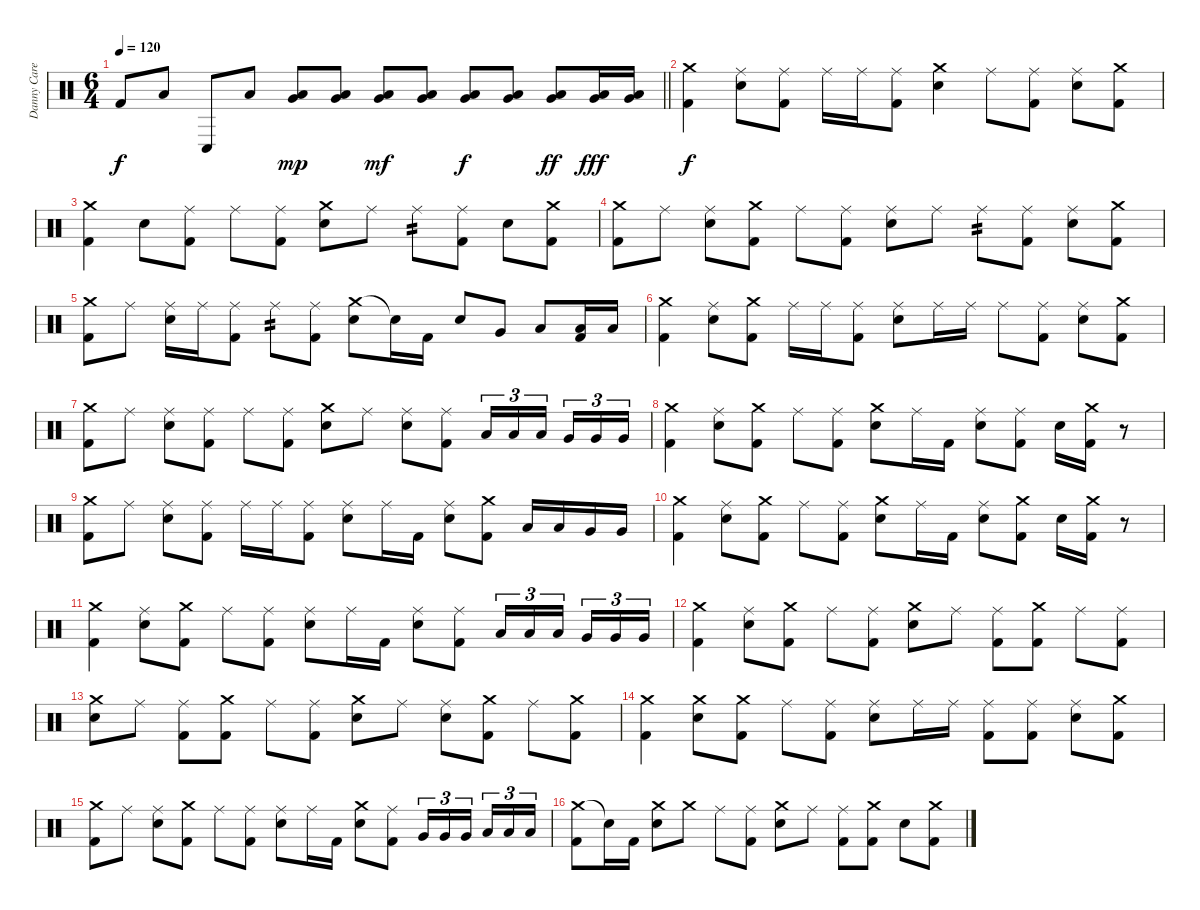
\track ("Danny Carey" "Danny Care") {instrument percussion}
\staff {score}
\articulation defaults
\ts (6 4)
\tempo 120
\clef neutral
\barLineRight lightlight
\ks c "Kick (hit) 2".8{dy f} "Low Tom (hit)".8 "Conga low (hit)".8 "Low Tom (hit)".8
("Very Low Tom (hit)" "Low Floor Tom (hit)").8{dy mp} ("Very Low Tom (hit)" "Low Floor Tom (hit)").8 ("Very Low Tom (hit)" "Low Floor Tom (hit)").8{dy mf} ("Very Low Tom (hit)" "Low Floor Tom (hit)").8 ("Very Low Tom (hit)" "Low Floor Tom (hit)").8{dy f} ("Very Low Tom (hit)" "Low Floor Tom (hit)").8 ("Very Low Tom (hit)" "Low Floor Tom (hit)").8{dy ff} ("Very Low Tom (hit)" "Low Floor Tom (hit)").16{dy fff} ("Very Low Tom (hit)" "Low Floor Tom (hit)").16 |
\section ("" "")
("Crash medium (hit)" "Kick (hit) 2").4{dy f} ("Ride (middle)" "Snare (hit) 2").8 ("Ride (middle)" "Kick (hit) 2").8 "Ride (middle)".16 "Ride (middle)".16 ("Ride (middle)" "Kick (hit) 2").8 ("Crash medium (hit)" "Snare (hit) 2").4 "Ride (middle)".8 ("Ride (middle)" "Kick (hit) 2").8 ("Ride (middle)" "Snare (hit) 2").8 ("Crash medium (hit)" "Kick (hit) 2").8 |
("Crash medium (hit)" "Kick (hit) 2").4 "Snare (hit) 2".8 ("Ride (middle)" "Kick (hit) 2").8 "Ride (middle)".8 ("Ride (middle)" "Kick (hit) 2").8 ("Crash medium (hit)" "Snare (hit) 2").8 "Ride (middle)".8 "Ride (middle)".8{tp 2} ("Ride (middle)" "Kick (hit) 2").8 "Snare (hit) 2".8 ("Crash medium (hit)" "Kick (hit) 2").8 |
("Crash medium (hit)" "Kick (hit) 2").8 "Ride (middle)".8 ("Ride (middle)" "Snare (hit) 2").8 ("Crash medium (hit)" "Kick (hit) 2").8 "Ride (middle)".8 ("Ride (middle)" "Kick (hit) 2").8 ("Ride (middle)" "Snare (hit) 2").8 "Ride (middle)".8 "Ride (middle)".8{tp 2} ("Ride (middle)" "Kick (hit) 2").8 ("Ride (middle)" "Snare (hit) 2").8 ("Crash medium (hit)" "Kick (hit) 2").8 |
("Crash medium (hit)" "Kick (hit) 2").8 "Ride (middle)".8 ("Ride (middle)" "Snare (hit) 2").16 "Ride (middle)".16 ("Ride (middle)" "Kick (hit) 2").8 "Ride (middle)".8{tp 2} ("Ride (middle)" "Kick (hit) 2").8 ("Crash medium (hit)" "Snare (hit) 2").8 "Snare (hit)"{t}.16 "Kick (hit) 2".16 "Snare (hit) 2".8 "Very Low Tom (hit)".8 "Low Floor Tom (hit)".8 ("Low Floor Tom (hit)" "Kick (hit) 2").16 "Low Floor Tom (hit)".16 |
("Crash medium (hit)" "Kick (hit) 2").4 ("Ride (middle)" "Snare (hit) 2").8 ("Crash medium (hit)" "Kick (hit) 2").8 "Ride (middle)".16 "Ride (middle)".16 ("Ride (middle)" "Kick (hit) 2").8 ("Ride (middle)" "Snare (hit) 2").8 "Ride (middle)".16 "Ride (middle)".16 "Ride (middle)".8 ("Ride (middle)" "Kick (hit) 2").8 ("Ride (middle)" "Snare (hit) 2").8 ("Crash medium (hit)" "Kick (hit) 2").8 |
("Crash medium (hit)" "Kick (hit) 2").8 "Ride (middle)".8 ("Ride (middle)" "Snare (hit) 2").8 ("Ride (middle)" "Kick (hit) 2").8 "Ride (middle)".8 ("Ride (middle)" "Kick (hit) 2").8 ("Crash medium (hit)" "Snare (hit) 2").8 "Ride (middle)".8 ("Ride (middle)" "Snare (hit) 2").8 ("Ride (middle)" "Kick (hit) 2").8 "Low Tom (hit)".16{tu (3 2)} "Low Tom (hit)".16{tu (3 2)} "Low Tom (hit)".16{tu (3 2) beam splitsecondary} "Very Low Tom (hit)".16{tu (3 2)} "Very Low Tom (hit)".16{tu (3 2)} "Very Low Tom (hit)".16{tu (3 2)} |
("Crash medium (hit)" "Kick (hit) 2").4 ("Ride (middle)" "Snare (hit) 2").8 ("Crash medium (hit)" "Kick (hit) 2").8 "Ride (middle)".8 ("Ride (middle)" "Kick (hit) 2").8 ("Crash medium (hit)" "Snare (hit) 2").8 "Ride (middle)".16 "Kick (hit) 2".16 ("Ride (middle)" "Snare (hit) 2").8 ("Ride (middle)" "Kick (hit) 2").8 "Snare (hit) 2".16 ("Crash medium (hit)" "Kick (hit) 2").16 r.8 |
("Crash medium (hit)" "Kick (hit) 2").8 "Ride (middle)".8 ("Ride (middle)" "Snare (hit) 2").8 ("Ride (middle)" "Kick (hit) 2").8 "Ride (middle)".16 "Ride (middle)".16 ("Ride (middle)" "Kick (hit) 2").8 ("Ride (middle)" "Snare (hit) 2").8 "Ride (middle)".16 "Kick (hit) 2".16 ("Ride (middle)" "Snare (hit) 2").8 ("Crash medium (hit)" "Kick (hit) 2").8 "Low Tom (hit)".16 "Low Tom (hit)".16 "Very Low Tom (hit)".16 "Very Low Tom (hit)".16 |
("Crash medium (hit)" "Kick (hit) 2").4 ("Ride (middle)" "Snare (hit) 2").8 ("Crash medium (hit)" "Kick (hit) 2").8 "Ride (middle)".8 ("Ride (middle)" "Kick (hit) 2").8 ("Crash medium (hit)" "Snare (hit) 2").8 "Ride (middle)".16 "Kick (hit) 2".16 ("Ride (middle)" "Snare (hit) 2").8 ("Crash medium (hit)" "Kick (hit) 2").8 "Snare (hit) 2".16 ("Crash medium (hit)" "Kick (hit) 2").16 r.8 |
("Crash medium (hit)" "Kick (hit) 2").4 ("Ride (middle)" "Snare (hit) 2").8 ("Crash medium (hit)" "Kick (hit) 2").8 "Ride (middle)".8 ("Ride (middle)" "Kick (hit) 2").8 ("Ride (middle)" "Snare (hit) 2").8 "Ride (middle)".16 "Kick (hit) 2".16 ("Ride (middle)" "Snare (hit) 2").8 ("Ride (middle)" "Kick (hit) 2").8 "Low Tom (hit)".16{tu (3 2)} "Low Tom (hit)".16{tu (3 2)} "Low Tom (hit)".16{tu (3 2) beam splitsecondary} "Very Low Tom (hit)".16{tu (3 2)} "Very Low Tom (hit)".16{tu (3 2)} "Very Low Tom (hit)".16{tu (3 2)} |
("Crash medium (hit)" "Kick (hit) 2").4 ("Ride (middle)" "Snare (hit) 2").8 ("Crash medium (hit)" "Kick (hit) 2").8 "Ride (middle)".8 ("Ride (middle)" "Kick (hit) 2").8 ("Crash medium (hit)" "Snare (hit) 2").8 "Ride (middle)".8 ("Ride (middle)" "Kick (hit) 2").8 ("Crash medium (hit)" "Kick (hit) 2").8 "Ride (middle)".8 ("Ride (middle)" "Kick (hit) 2").8 |
("Crash medium (hit)" "Snare (hit) 2").8 "Ride (middle)".8 ("Ride (middle)" "Kick (hit) 2").8 ("Crash medium (hit)" "Kick (hit) 2").8 "Ride (middle)".8 ("Ride (middle)" "Kick (hit) 2").8 ("Crash medium (hit)" "Snare (hit) 2").8 "Ride (middle)".8 ("Ride (middle)" "Snare (hit) 2").8 ("Crash medium (hit)" "Kick (hit) 2").8 "Ride (middle)".8 ("Crash medium (hit)" "Kick (hit) 2").8 |
("Crash medium (hit)" "Kick (hit) 2").4 ("Crash medium (hit)" "Snare (hit) 2").8 ("Crash medium (hit)" "Kick (hit) 2").8 "Ride (middle)".8 ("Ride (middle)" "Kick (hit) 2").8 ("Ride (middle)" "Snare (hit) 2").8 "Ride (middle)".16 "Ride (middle)".16 ("Ride (middle)" "Kick (hit) 2").8 ("Ride (middle)" "Kick (hit) 2").8 ("Ride (middle)" "Snare (hit) 2").8 ("Crash medium (hit)" "Kick (hit) 2").8 |
("Crash medium (hit)" "Kick (hit) 2").8 "Ride (middle)".8 ("Ride (middle)" "Snare (hit) 2").8 ("Crash medium (hit)" "Kick (hit) 2").8 "Ride (middle)".8 ("Ride (middle)" "Kick (hit) 2").8 ("Ride (middle)" "Snare (hit) 2").8 "Ride (middle)".16 "Kick (hit) 2".16 ("Crash medium (hit)" "Snare (hit) 2").8 ("Ride (middle)" "Kick (hit) 2").8 "Very Low Tom (hit)".16{tu (3 2)} "Very Low Tom (hit)".16{tu (3 2)} "Very Low Tom (hit)".16{tu (3 2) beam splitsecondary} "Low Floor Tom (hit)".16{tu (3 2)} "Low Floor Tom (hit)".16{tu (3 2)} "Low Floor Tom (hit)".16{tu (3 2)} |
("Crash medium (hit)" "Kick (hit) 2").8 "Snare (hit)"{t}.16 "Kick (hit) 2".16 ("Crash medium (hit)" "Snare (hit) 2").8 "Crash medium (hit)".8 "Ride (middle)".8 ("Ride (middle)" "Kick (hit) 2").8 ("Crash medium (hit)" "Snare (hit) 2").8 "Ride (middle)".8 ("Ride (middle)" "Kick (hit) 2").8 ("Crash medium (hit)" "Kick (hit) 2").8 "Snare (hit) 2".8 ("Crash medium (hit)" "Kick (hit) 2").8
